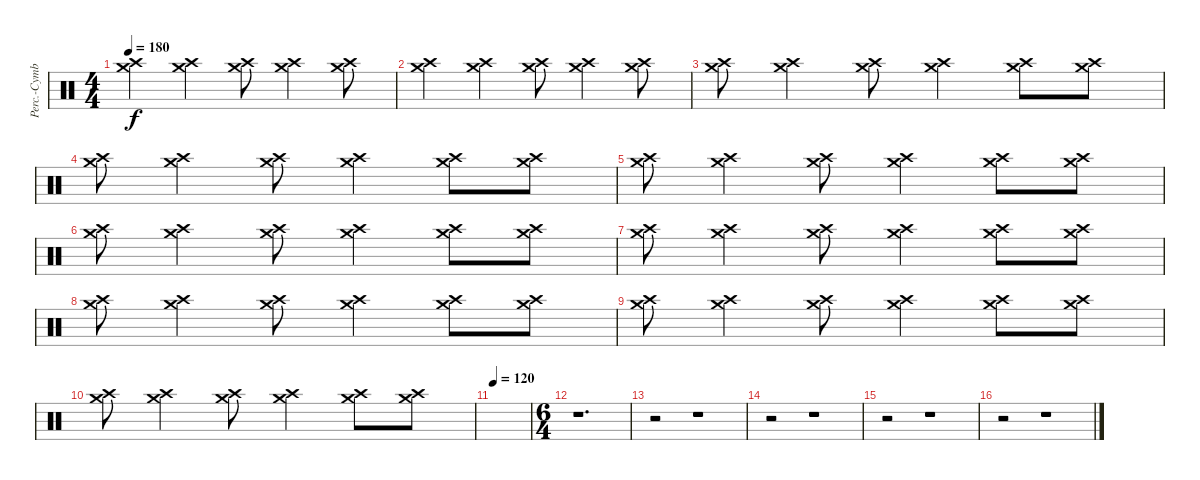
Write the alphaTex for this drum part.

\track ("Perc.-Cymbals 1" "Perc.-Cymb") {instrument percussion}
\staff {score}
\articulation defaults
\ts (4 4)
\tempo 180
\clef neutral
\ks c
("Crash high (hit)" "Crash medium (hit)").4{dy f} ("Crash high (hit)" "Crash medium (hit)").4 ("Crash high (hit)" "Crash medium (hit)").8 ("Crash high (hit)" "Crash medium (hit)").4 ("Crash high (hit)" "Crash medium (hit)").8 |
("Crash high (hit)" "Crash medium (hit)").4 ("Crash high (hit)" "Crash medium (hit)").4 ("Crash high (hit)" "Crash medium (hit)").8 ("Crash high (hit)" "Crash medium (hit)").4 ("Crash high (hit)" "Crash medium (hit)").8 |
("Crash high (hit)" "Crash medium (hit)").8 ("Crash high (hit)" "Crash medium (hit)").4 ("Crash high (hit)" "Crash medium (hit)").8 ("Crash high (hit)" "Crash medium (hit)").4 ("Crash high (hit)" "Crash medium (hit)").8 ("Crash high (hit)" "Crash medium (hit)").8 |
("Crash high (hit)" "Crash medium (hit)").8 ("Crash high (hit)" "Crash medium (hit)").4 ("Crash high (hit)" "Crash medium (hit)").8 ("Crash high (hit)" "Crash medium (hit)").4 ("Crash high (hit)" "Crash medium (hit)").8 ("Crash high (hit)" "Crash medium (hit)").8 |
("Crash high (hit)" "Crash medium (hit)").8 ("Crash high (hit)" "Crash medium (hit)").4 ("Crash high (hit)" "Crash medium (hit)").8 ("Crash high (hit)" "Crash medium (hit)").4 ("Crash high (hit)" "Crash medium (hit)").8 ("Crash high (hit)" "Crash medium (hit)").8 |
("Crash high (hit)" "Crash medium (hit)").8 ("Crash high (hit)" "Crash medium (hit)").4 ("Crash high (hit)" "Crash medium (hit)").8 ("Crash high (hit)" "Crash medium (hit)").4 ("Crash high (hit)" "Crash medium (hit)").8 ("Crash high (hit)" "Crash medium (hit)").8 |
("Crash high (hit)" "Crash medium (hit)").8 ("Crash high (hit)" "Crash medium (hit)").4 ("Crash high (hit)" "Crash medium (hit)").8 ("Crash high (hit)" "Crash medium (hit)").4 ("Crash high (hit)" "Crash medium (hit)").8 ("Crash high (hit)" "Crash medium (hit)").8 |
("Crash high (hit)" "Crash medium (hit)").8 ("Crash high (hit)" "Crash medium (hit)").4 ("Crash high (hit)" "Crash medium (hit)").8 ("Crash high (hit)" "Crash medium (hit)").4 ("Crash high (hit)" "Crash medium (hit)").8 ("Crash high (hit)" "Crash medium (hit)").8 |
("Crash high (hit)" "Crash medium (hit)").8 ("Crash high (hit)" "Crash medium (hit)").4 ("Crash high (hit)" "Crash medium (hit)").8 ("Crash high (hit)" "Crash medium (hit)").4 ("Crash high (hit)" "Crash medium (hit)").8 ("Crash high (hit)" "Crash medium (hit)").8 |
("Crash high (hit)" "Crash medium (hit)").8 ("Crash high (hit)" "Crash medium (hit)").4 ("Crash high (hit)" "Crash medium (hit)").8 ("Crash high (hit)" "Crash medium (hit)").4 ("Crash high (hit)" "Crash medium (hit)").8 ("Crash high (hit)" "Crash medium (hit)").8 |
\tempo 120
|
\ts (6 4)
r.1{d} |
r.2 r.1 |
r.2 r.1 |
r.2 r.1 |
r.2 r.1
